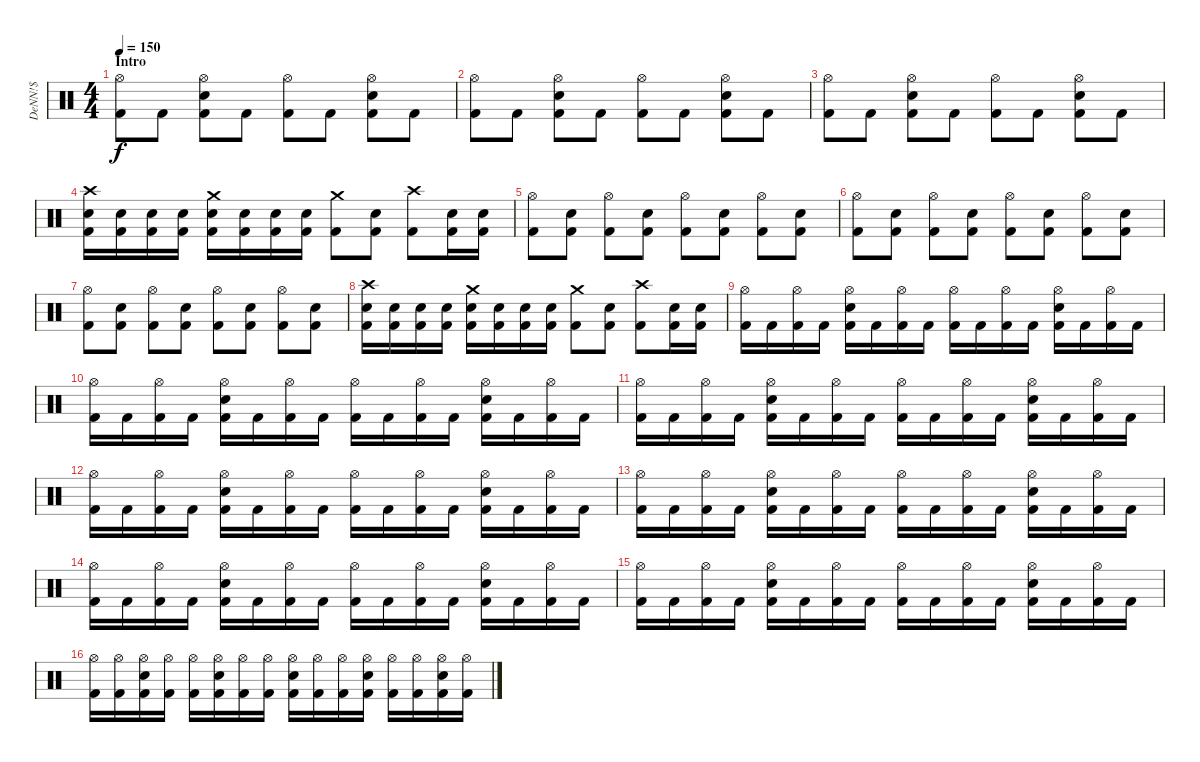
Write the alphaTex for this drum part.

\track ("DeNN!$" "DeNN!$") {instrument percussion}
\staff {score}
\articulation defaults
\ts (4 4)
\section ("" "Intro")
\tempo 150
\clef neutral
\ks c
("Hi-Hat (open)" "Kick (hit) 2").8{dy f} "Kick (hit) 2".8 ("Hi-Hat (open)" "Snare (hit) 2" "Kick (hit) 2").8 "Kick (hit) 2".8 ("Hi-Hat (open)" "Kick (hit) 2").8 "Kick (hit) 2".8 ("Hi-Hat (open)" "Snare (hit) 2" "Kick (hit) 2").8 "Kick (hit) 2".8 |
("Hi-Hat (open)" "Kick (hit) 2").8 "Kick (hit) 2".8 ("Hi-Hat (open)" "Snare (hit) 2" "Kick (hit) 2").8 "Kick (hit) 2".8 ("Hi-Hat (open)" "Kick (hit) 2").8 "Kick (hit) 2".8 ("Hi-Hat (open)" "Snare (hit) 2" "Kick (hit) 2").8 "Kick (hit) 2".8 |
("Hi-Hat (open)" "Kick (hit) 2").8 "Kick (hit) 2".8 ("Hi-Hat (open)" "Snare (hit) 2" "Kick (hit) 2").8 "Kick (hit) 2".8 ("Hi-Hat (open)" "Kick (hit) 2").8 "Kick (hit) 2".8 ("Hi-Hat (open)" "Snare (hit) 2" "Kick (hit) 2").8 "Kick (hit) 2".8 |
("Crash high (hit)" "Snare (hit) 2" "Kick (hit) 2").16 ("Snare (hit) 2" "Kick (hit) 2").16 ("Snare (hit) 2" "Kick (hit) 2").16 ("Snare (hit) 2" "Kick (hit) 2").16 ("Crash medium (hit)" "Snare (hit) 2" "Kick (hit) 2").16 ("Snare (hit) 2" "Kick (hit) 2").16 ("Snare (hit) 2" "Kick (hit) 2").16 ("Snare (hit) 2" "Kick (hit) 2").16 ("Crash medium (hit)" "Kick (hit) 2").8 ("Snare (hit) 2" "Kick (hit) 2").8 ("Crash high (hit)" "Kick (hit) 2").8 ("Snare (hit) 2" "Kick (hit) 2").16 ("Snare (hit) 2" "Kick (hit) 2").16 |
("Hi-Hat (open)" "Kick (hit) 2").8 ("Snare (hit) 2" "Kick (hit) 2").8 ("Hi-Hat (open)" "Kick (hit) 2").8 ("Snare (hit) 2" "Kick (hit) 2").8 ("Hi-Hat (open)" "Kick (hit) 2").8 ("Snare (hit) 2" "Kick (hit) 2").8 ("Hi-Hat (open)" "Kick (hit) 2").8 ("Snare (hit) 2" "Kick (hit) 2").8 |
("Hi-Hat (open)" "Kick (hit) 2").8 ("Snare (hit) 2" "Kick (hit) 2").8 ("Hi-Hat (open)" "Kick (hit) 2").8 ("Snare (hit) 2" "Kick (hit) 2").8 ("Hi-Hat (open)" "Kick (hit) 2").8 ("Snare (hit) 2" "Kick (hit) 2").8 ("Hi-Hat (open)" "Kick (hit) 2").8 ("Snare (hit) 2" "Kick (hit) 2").8 |
("Hi-Hat (open)" "Kick (hit) 2").8 ("Snare (hit) 2" "Kick (hit) 2").8 ("Hi-Hat (open)" "Kick (hit) 2").8 ("Snare (hit) 2" "Kick (hit) 2").8 ("Hi-Hat (open)" "Kick (hit) 2").8 ("Snare (hit) 2" "Kick (hit) 2").8 ("Hi-Hat (open)" "Kick (hit) 2").8 ("Snare (hit) 2" "Kick (hit) 2").8 |
("Crash high (hit)" "Snare (hit) 2" "Kick (hit) 2").16 ("Snare (hit) 2" "Kick (hit) 2").16 ("Snare (hit) 2" "Kick (hit) 2").16 ("Snare (hit) 2" "Kick (hit) 2").16 ("Crash medium (hit)" "Snare (hit) 2" "Kick (hit) 2").16 ("Snare (hit) 2" "Kick (hit) 2").16 ("Snare (hit) 2" "Kick (hit) 2").16 ("Snare (hit) 2" "Kick (hit) 2").16 ("Crash medium (hit)" "Kick (hit) 2").8 ("Snare (hit) 2" "Kick (hit) 2").8 ("Crash high (hit)" "Kick (hit) 2").8 ("Snare (hit) 2" "Kick (hit) 2").16 ("Snare (hit) 2" "Kick (hit) 2").16 |
("Hi-Hat (open)" "Kick (hit) 2").16 "Kick (hit) 2".16 ("Hi-Hat (open)" "Kick (hit) 2").16 "Kick (hit) 2".16 ("Hi-Hat (open)" "Snare (hit) 2" "Kick (hit) 2").16 "Kick (hit) 2".16 ("Hi-Hat (open)" "Kick (hit) 2").16 "Kick (hit) 2".16 ("Hi-Hat (open)" "Kick (hit) 2").16 "Kick (hit) 2".16 ("Hi-Hat (open)" "Kick (hit) 2").16 "Kick (hit) 2".16 ("Hi-Hat (open)" "Snare (hit) 2" "Kick (hit) 2").16 "Kick (hit) 2".16 ("Hi-Hat (open)" "Kick (hit) 2").16 "Kick (hit) 2".16 |
("Hi-Hat (open)" "Kick (hit) 2").16 "Kick (hit) 2".16 ("Hi-Hat (open)" "Kick (hit) 2").16 "Kick (hit) 2".16 ("Hi-Hat (open)" "Snare (hit) 2" "Kick (hit) 2").16 "Kick (hit) 2".16 ("Hi-Hat (open)" "Kick (hit) 2").16 "Kick (hit) 2".16 ("Hi-Hat (open)" "Kick (hit) 2").16 "Kick (hit) 2".16 ("Hi-Hat (open)" "Kick (hit) 2").16 "Kick (hit) 2".16 ("Hi-Hat (open)" "Snare (hit) 2" "Kick (hit) 2").16 "Kick (hit) 2".16 ("Hi-Hat (open)" "Kick (hit) 2").16 "Kick (hit) 2".16 |
("Hi-Hat (open)" "Kick (hit) 2").16 "Kick (hit) 2".16 ("Hi-Hat (open)" "Kick (hit) 2").16 "Kick (hit) 2".16 ("Hi-Hat (open)" "Snare (hit) 2" "Kick (hit) 2").16 "Kick (hit) 2".16 ("Hi-Hat (open)" "Kick (hit) 2").16 "Kick (hit) 2".16 ("Hi-Hat (open)" "Kick (hit) 2").16 "Kick (hit) 2".16 ("Hi-Hat (open)" "Kick (hit) 2").16 "Kick (hit) 2".16 ("Hi-Hat (open)" "Snare (hit) 2" "Kick (hit) 2").16 "Kick (hit) 2".16 ("Hi-Hat (open)" "Kick (hit) 2").16 "Kick (hit) 2".16 |
("Hi-Hat (open)" "Kick (hit) 2").16 "Kick (hit) 2".16 ("Hi-Hat (open)" "Kick (hit) 2").16 "Kick (hit) 2".16 ("Hi-Hat (open)" "Snare (hit) 2" "Kick (hit) 2").16 "Kick (hit) 2".16 ("Hi-Hat (open)" "Kick (hit) 2").16 "Kick (hit) 2".16 ("Hi-Hat (open)" "Kick (hit) 2").16 "Kick (hit) 2".16 ("Hi-Hat (open)" "Kick (hit) 2").16 "Kick (hit) 2".16 ("Hi-Hat (open)" "Snare (hit) 2" "Kick (hit) 2").16 "Kick (hit) 2".16 ("Hi-Hat (open)" "Kick (hit) 2").16 "Kick (hit) 2".16 |
("Hi-Hat (open)" "Kick (hit) 2").16 "Kick (hit) 2".16 ("Hi-Hat (open)" "Kick (hit) 2").16 "Kick (hit) 2".16 ("Hi-Hat (open)" "Snare (hit) 2" "Kick (hit) 2").16 "Kick (hit) 2".16 ("Hi-Hat (open)" "Kick (hit) 2").16 "Kick (hit) 2".16 ("Hi-Hat (open)" "Kick (hit) 2").16 "Kick (hit) 2".16 ("Hi-Hat (open)" "Kick (hit) 2").16 "Kick (hit) 2".16 ("Hi-Hat (open)" "Snare (hit) 2" "Kick (hit) 2").16 "Kick (hit) 2".16 ("Hi-Hat (open)" "Kick (hit) 2").16 "Kick (hit) 2".16 |
("Hi-Hat (open)" "Kick (hit) 2").16 "Kick (hit) 2".16 ("Hi-Hat (open)" "Kick (hit) 2").16 "Kick (hit) 2".16 ("Hi-Hat (open)" "Snare (hit) 2" "Kick (hit) 2").16 "Kick (hit) 2".16 ("Hi-Hat (open)" "Kick (hit) 2").16 "Kick (hit) 2".16 ("Hi-Hat (open)" "Kick (hit) 2").16 "Kick (hit) 2".16 ("Hi-Hat (open)" "Kick (hit) 2").16 "Kick (hit) 2".16 ("Hi-Hat (open)" "Snare (hit) 2" "Kick (hit) 2").16 "Kick (hit) 2".16 ("Hi-Hat (open)" "Kick (hit) 2").16 "Kick (hit) 2".16 |
("Hi-Hat (open)" "Kick (hit) 2").16 "Kick (hit) 2".16 ("Hi-Hat (open)" "Kick (hit) 2").16 "Kick (hit) 2".16 ("Hi-Hat (open)" "Snare (hit) 2" "Kick (hit) 2").16 "Kick (hit) 2".16 ("Hi-Hat (open)" "Kick (hit) 2").16 "Kick (hit) 2".16 ("Hi-Hat (open)" "Kick (hit) 2").16 "Kick (hit) 2".16 ("Hi-Hat (open)" "Kick (hit) 2").16 "Kick (hit) 2".16 ("Hi-Hat (open)" "Snare (hit) 2" "Kick (hit) 2").16 "Kick (hit) 2".16 ("Hi-Hat (open)" "Kick (hit) 2").16 "Kick (hit) 2".16 |
("Hi-Hat (open)" "Kick (hit) 2").16 ("Hi-Hat (open)" "Kick (hit) 2").16 ("Hi-Hat (open)" "Snare (hit) 2" "Kick (hit) 2").16 ("Hi-Hat (open)" "Kick (hit) 2").16 ("Hi-Hat (open)" "Kick (hit) 2").16 ("Hi-Hat (open)" "Snare (hit) 2" "Kick (hit) 2").16 ("Hi-Hat (open)" "Kick (hit) 2").16 ("Hi-Hat (open)" "Kick (hit) 2").16 ("Hi-Hat (open)" "Snare (hit) 2" "Kick (hit) 2").16 ("Hi-Hat (open)" "Kick (hit) 2").16 ("Hi-Hat (open)" "Kick (hit) 2").16 ("Hi-Hat (open)" "Snare (hit) 2" "Kick (hit) 2").16 ("Hi-Hat (open)" "Kick (hit) 2").16 ("Hi-Hat (open)" "Kick (hit) 2").16 ("Hi-Hat (open)" "Snare (hit) 2" "Kick (hit) 2").16 ("Hi-Hat (open)" "Kick (hit) 2").16
